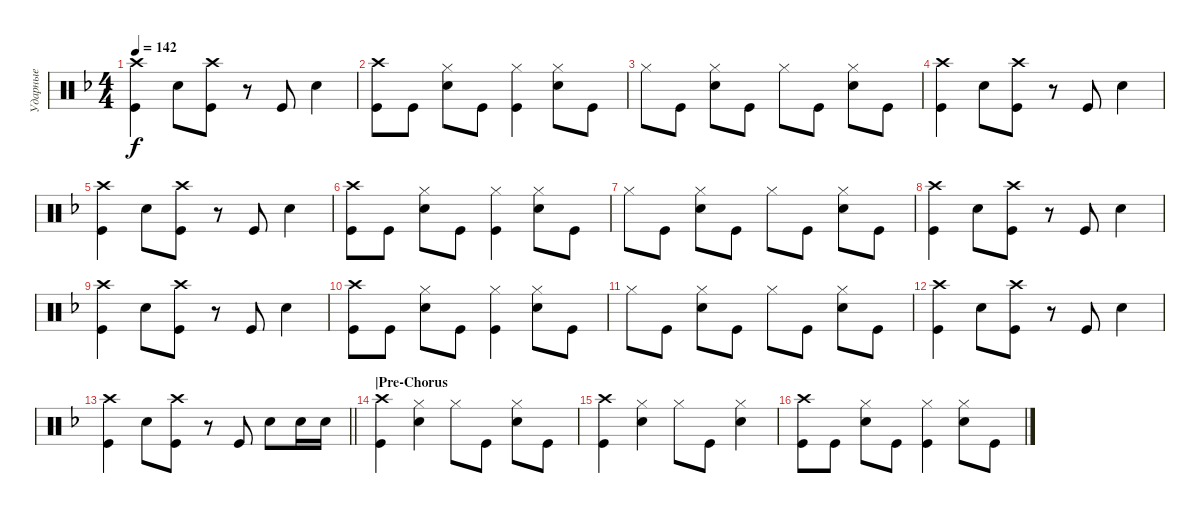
\track ("Ударные" "Ударные") {instrument percussion}
\staff {score}
\articulation defaults
\ts (4 4)
\tempo 142
\clef neutral
\ks dminor
("Kick (hit)" "Crash high (hit)").4{dy f} "Snare (hit) 2".8 ("Kick (hit)" "Crash high (hit)").8 r.8 "Kick (hit)".8 "Snare (hit) 2".4 |
("Kick (hit)" "Crash high (hit)").8 "Kick (hit)".8 ("Snare (hit) 2" "Hi-Hat (closed)").8 "Kick (hit)".8 ("Kick (hit)" "Hi-Hat (closed)").4 ("Snare (hit) 2" "Hi-Hat (closed)").8 "Kick (hit)".8 |
"Hi-Hat (closed)".8 "Kick (hit)".8 ("Snare (hit) 2" "Hi-Hat (closed)").8 "Kick (hit)".8 "Hi-Hat (closed)".8 "Kick (hit)".8 ("Snare (hit) 2" "Hi-Hat (closed)").8 "Kick (hit)".8 |
("Kick (hit)" "Crash high (hit)").4 "Snare (hit) 2".8 ("Kick (hit)" "Crash high (hit)").8 r.8 "Kick (hit)".8 "Snare (hit) 2".4 |
("Kick (hit)" "Crash high (hit)").4 "Snare (hit) 2".8 ("Kick (hit)" "Crash high (hit)").8 r.8 "Kick (hit)".8 "Snare (hit) 2".4 |
("Kick (hit)" "Crash high (hit)").8 "Kick (hit)".8 ("Snare (hit) 2" "Hi-Hat (closed)").8 "Kick (hit)".8 ("Kick (hit)" "Hi-Hat (closed)").4 ("Snare (hit) 2" "Hi-Hat (closed)").8 "Kick (hit)".8 |
"Hi-Hat (closed)".8 "Kick (hit)".8 ("Snare (hit) 2" "Hi-Hat (closed)").8 "Kick (hit)".8 "Hi-Hat (closed)".8 "Kick (hit)".8 ("Snare (hit) 2" "Hi-Hat (closed)").8 "Kick (hit)".8 |
("Kick (hit)" "Crash high (hit)").4 "Snare (hit) 2".8 ("Kick (hit)" "Crash high (hit)").8 r.8 "Kick (hit)".8 "Snare (hit) 2".4 |
("Kick (hit)" "Crash high (hit)").4 "Snare (hit) 2".8 ("Kick (hit)" "Crash high (hit)").8 r.8 "Kick (hit)".8 "Snare (hit) 2".4 |
("Kick (hit)" "Crash high (hit)").8 "Kick (hit)".8 ("Snare (hit) 2" "Hi-Hat (closed)").8 "Kick (hit)".8 ("Kick (hit)" "Hi-Hat (closed)").4 ("Snare (hit) 2" "Hi-Hat (closed)").8 "Kick (hit)".8 |
"Hi-Hat (closed)".8 "Kick (hit)".8 ("Snare (hit) 2" "Hi-Hat (closed)").8 "Kick (hit)".8 "Hi-Hat (closed)".8 "Kick (hit)".8 ("Snare (hit) 2" "Hi-Hat (closed)").8 "Kick (hit)".8 |
("Kick (hit)" "Crash high (hit)").4 "Snare (hit) 2".8 ("Kick (hit)" "Crash high (hit)").8 r.8 "Kick (hit)".8 "Snare (hit) 2".4 |
\barLineRight lightlight
("Kick (hit)" "Crash high (hit)").4 "Snare (hit) 2".8 ("Kick (hit)" "Crash high (hit)").8 r.8 "Kick (hit)".8 "Snare (hit) 2".8 "Snare (hit) 2".16 "Snare (hit) 2".16 |
\section ("" "|Pre-Chorus")
("Kick (hit)" "Crash high (hit)").4 ("Snare (hit) 2" "Hi-Hat (closed)").4 "Hi-Hat (closed)".8 "Kick (hit)".8 ("Snare (hit) 2" "Hi-Hat (closed)").8 "Kick (hit)".8 |
("Kick (hit)" "Crash high (hit)").4 ("Snare (hit) 2" "Hi-Hat (closed)").4 "Hi-Hat (closed)".8 "Kick (hit)".8 ("Snare (hit) 2" "Hi-Hat (closed)").4 |
("Kick (hit)" "Crash high (hit)").8 "Kick (hit)".8 ("Snare (hit) 2" "Hi-Hat (closed)").8 "Kick (hit)".8 ("Kick (hit)" "Hi-Hat (closed)").4 ("Snare (hit) 2" "Hi-Hat (closed)").8 "Kick (hit)".8
